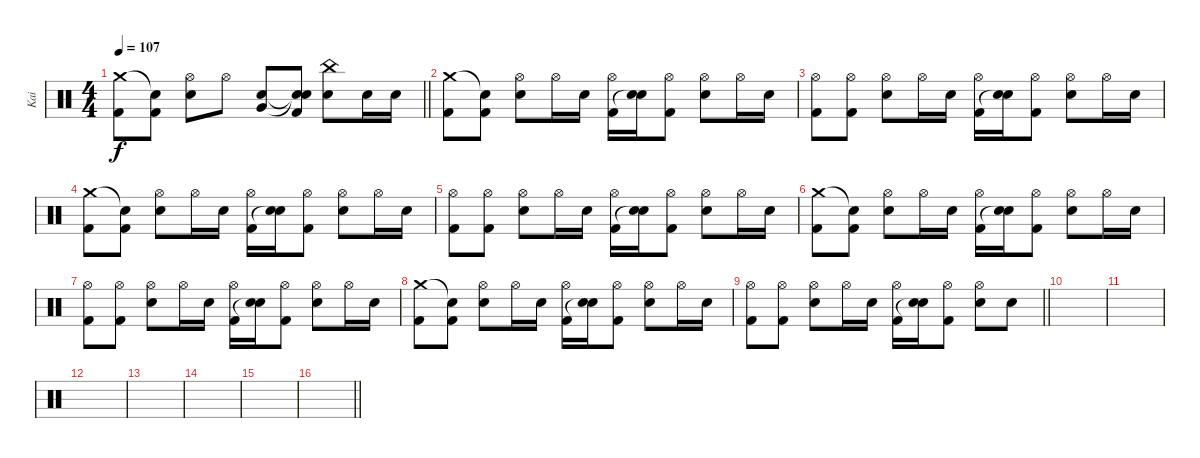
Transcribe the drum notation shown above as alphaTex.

\track ("Kai" "Kai") {instrument percussion}
\staff {score}
\articulation defaults
\ts (4 4)
\tempo 107
\clef neutral
\barLineRight lightlight
\ks c
("Crash medium (hit)" "Kick (hit) 2").8{dy f} ("Snare (hit)"{t} "Kick (hit) 2").8 ("Hi-Hat (open)" "Snare (hit) 2").8 "Hi-Hat (open)".8 ("Snare (hit) 2" "Very Low Tom (hit)").8 ("Snare (hit)"{t} "Snare (hit)"{t} "Kick (hit) 2").8 ("China (hit)" "Snare (hit) 2").8 "Snare (hit) 2".16 "Snare (hit) 2".16 |
("Crash medium (hit)" "Kick (hit) 2").8 ("Snare (hit)"{t} "Kick (hit) 2").8 ("Hi-Hat (open)" "Snare (hit) 2").8 "Hi-Hat (open)".16 "Snare (hit) 2".16 ("Hi-Hat (open)" "Kick (hit) 2").16 ("Snare (hit) 2" "Snare (hit)"{t}).16 ("Hi-Hat (open)" "Kick (hit) 2").8 ("Hi-Hat (open)" "Snare (hit) 2").8 "Hi-Hat (open)".16 "Snare (hit) 2".16 |
("Hi-Hat (open)" "Kick (hit) 2").8 ("Hi-Hat (open)" "Kick (hit) 2").8 ("Hi-Hat (open)" "Snare (hit) 2").8 "Hi-Hat (open)".16 "Snare (hit) 2".16 ("Hi-Hat (open)" "Kick (hit) 2").16 ("Snare (hit) 2" "Snare (hit)"{t}).16 ("Hi-Hat (open)" "Kick (hit) 2").8 ("Hi-Hat (open)" "Snare (hit) 2").8 "Hi-Hat (open)".16 "Snare (hit) 2".16 |
("Crash medium (hit)" "Kick (hit) 2").8 ("Snare (hit)"{t} "Kick (hit) 2").8 ("Hi-Hat (open)" "Snare (hit) 2").8 "Hi-Hat (open)".16 "Snare (hit) 2".16 ("Hi-Hat (open)" "Kick (hit) 2").16 ("Snare (hit) 2" "Snare (hit)"{t}).16 ("Hi-Hat (open)" "Kick (hit) 2").8 ("Hi-Hat (open)" "Snare (hit) 2").8 "Hi-Hat (open)".16 "Snare (hit) 2".16 |
("Hi-Hat (open)" "Kick (hit) 2").8 ("Hi-Hat (open)" "Kick (hit) 2").8 ("Hi-Hat (open)" "Snare (hit) 2").8 "Hi-Hat (open)".16 "Snare (hit) 2".16 ("Hi-Hat (open)" "Kick (hit) 2").16 ("Snare (hit) 2" "Snare (hit)"{t}).16 ("Hi-Hat (open)" "Kick (hit) 2").8 ("Hi-Hat (open)" "Snare (hit) 2").8 "Hi-Hat (open)".16 "Snare (hit) 2".16 |
("Crash medium (hit)" "Kick (hit) 2").8 ("Snare (hit)"{t} "Kick (hit) 2").8 ("Hi-Hat (open)" "Snare (hit) 2").8 "Hi-Hat (open)".16 "Snare (hit) 2".16 ("Hi-Hat (open)" "Kick (hit) 2").16 ("Snare (hit) 2" "Snare (hit)"{t}).16 ("Hi-Hat (open)" "Kick (hit) 2").8 ("Hi-Hat (open)" "Snare (hit) 2").8 "Hi-Hat (open)".16 "Snare (hit) 2".16 |
("Hi-Hat (open)" "Kick (hit) 2").8 ("Hi-Hat (open)" "Kick (hit) 2").8 ("Hi-Hat (open)" "Snare (hit) 2").8 "Hi-Hat (open)".16 "Snare (hit) 2".16 ("Hi-Hat (open)" "Kick (hit) 2").16 ("Snare (hit) 2" "Snare (hit)"{t}).16 ("Hi-Hat (open)" "Kick (hit) 2").8 ("Hi-Hat (open)" "Snare (hit) 2").8 "Hi-Hat (open)".16 "Snare (hit) 2".16 |
("Crash medium (hit)" "Kick (hit) 2").8 ("Snare (hit)"{t} "Kick (hit) 2").8 ("Hi-Hat (open)" "Snare (hit) 2").8 "Hi-Hat (open)".16 "Snare (hit) 2".16 ("Hi-Hat (open)" "Kick (hit) 2").16 ("Snare (hit) 2" "Snare (hit)"{t}).16 ("Hi-Hat (open)" "Kick (hit) 2").8 ("Hi-Hat (open)" "Snare (hit) 2").8 "Hi-Hat (open)".16 "Snare (hit) 2".16 |
\barLineRight lightlight
("Hi-Hat (open)" "Kick (hit) 2").8 ("Hi-Hat (open)" "Kick (hit) 2").8 ("Hi-Hat (open)" "Snare (hit) 2").8 "Hi-Hat (open)".16 "Snare (hit) 2".16 ("Hi-Hat (open)" "Kick (hit) 2").16 ("Snare (hit) 2" "Snare (hit)"{t}).16 ("Hi-Hat (open)" "Kick (hit) 2").8 ("Hi-Hat (open)" "Snare (hit) 2").8 "Snare (hit) 2".8 |
|
|
|
|
|
|
\barLineRight lightlight
